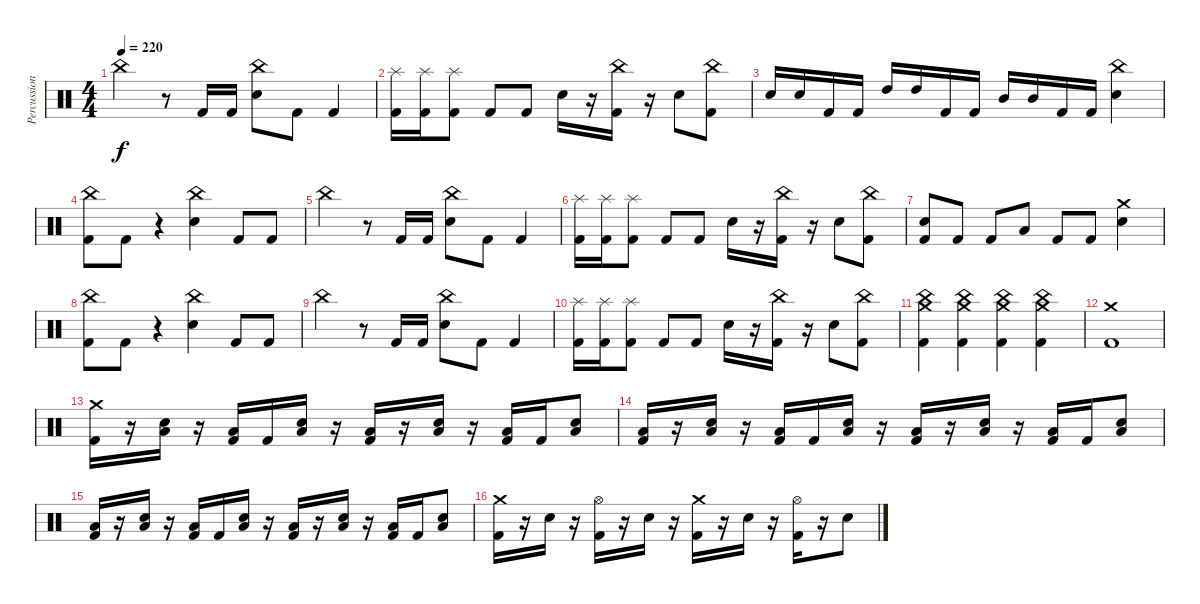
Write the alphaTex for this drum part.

\track ("Percussion" "Percussion") {solo instrument percussion}
\staff {score}
\articulation defaults
\ts (4 4)
\tempo 220
\clef neutral
\ks c "China (hit)".4{dy f}
r.8 "Kick (hit) 2".16 "Kick (hit) 2".16 ("China (hit)" "Electric Snare (hit)").8 "Kick (hit) 2".8 "Kick (hit) 2".4 |
("Splash (hit)" "Kick (hit) 2").16 ("Splash (hit)" "Kick (hit) 2").16 ("Splash (hit)" "Kick (hit) 2").8 "Kick (hit) 2".8 "Kick (hit) 2".8 "Electric Snare (hit)".16 r.16 ("China (hit)" "Kick (hit) 2").16 r.16 "Electric Snare (hit)".8 ("China (hit)" "Kick (hit) 2").8 |
"Electric Snare (hit)".16 "Electric Snare (hit)".16 "Kick (hit) 2".16 "Kick (hit) 2".16 "High Tom (hit)".16 "High Tom (hit)".16 "Kick (hit) 2".16 "Kick (hit) 2".16 "Mid Tom (hit)".16 "Mid Tom (hit)".16 "Kick (hit) 2".16 "Kick (hit) 2".16 ("China (hit)" "Electric Snare (hit)").4 |
("China (hit)" "Kick (hit) 2").8 "Kick (hit) 2".8 r.4 ("China (hit)" "Electric Snare (hit)").4 "Kick (hit) 2".8 "Kick (hit) 2".8 |
"China (hit)".4 r.8 "Kick (hit) 2".16 "Kick (hit) 2".16 ("China (hit)" "Electric Snare (hit)").8 "Kick (hit) 2".8 "Kick (hit) 2".4 |
("Splash (hit)" "Kick (hit) 2").16 ("Splash (hit)" "Kick (hit) 2").16 ("Splash (hit)" "Kick (hit) 2").8 "Kick (hit) 2".8 "Kick (hit) 2".8 "Electric Snare (hit)".16 r.16 ("China (hit)" "Kick (hit) 2").16 r.16 "Electric Snare (hit)".8 ("China (hit)" "Kick (hit) 2").8 |
("Electric Snare (hit)" "Kick (hit) 2").8 "Kick (hit) 2".8 "Kick (hit) 2".8 "Low Floor Tom (hit)".8 "Kick (hit) 2".8 "Kick (hit) 2".8 ("Crash medium (hit)" "Electric Snare (hit)").4 |
("China (hit)" "Kick (hit) 2").8 "Kick (hit) 2".8 r.4 ("China (hit)" "Electric Snare (hit)").4 "Kick (hit) 2".8 "Kick (hit) 2".8 |
"China (hit)".4 r.8 "Kick (hit) 2".16 "Kick (hit) 2".16 ("China (hit)" "Electric Snare (hit)").8 "Kick (hit) 2".8 "Kick (hit) 2".4 |
("Splash (hit)" "Kick (hit) 2").16 ("Splash (hit)" "Kick (hit) 2").16 ("Splash (hit)" "Kick (hit) 2").8 "Kick (hit) 2".8 "Kick (hit) 2".8 "Electric Snare (hit)".16 r.16 ("China (hit)" "Kick (hit) 2").16 r.16 "Electric Snare (hit)".8 ("China (hit)" "Kick (hit) 2").8 |
("China (hit)" "Crash medium (hit)" "Kick (hit) 2").4 ("China (hit)" "Crash medium (hit)" "Kick (hit) 2").4 ("China (hit)" "Crash medium (hit)" "Kick (hit) 2").4 ("China (hit)" "Crash medium (hit)" "Kick (hit) 2").4 |
("Crash medium (hit)" "Kick (hit) 2").1 |
("Crash medium (hit)" "Kick (hit) 2").16 r.16 ("Electric Snare (hit)" "Low Floor Tom (hit)").16 r.16 ("Low Floor Tom (hit)" "Kick (hit) 2").16 "Kick (hit) 2".16 ("Electric Snare (hit)" "Low Floor Tom (hit)").16 r.16 ("Low Floor Tom (hit)" "Kick (hit) 2").16 r.16 ("Electric Snare (hit)" "Low Floor Tom (hit)").16 r.16 ("Low Floor Tom (hit)" "Kick (hit) 2").16 "Kick (hit) 2".16 ("Electric Snare (hit)" "Low Floor Tom (hit)").8 |
("Low Floor Tom (hit)" "Kick (hit) 2").16 r.16 ("Electric Snare (hit)" "Low Floor Tom (hit)").16 r.16 ("Low Floor Tom (hit)" "Kick (hit) 2").16 "Kick (hit) 2".16 ("Electric Snare (hit)" "Low Floor Tom (hit)").16 r.16 ("Low Floor Tom (hit)" "Kick (hit) 2").16 r.16 ("Electric Snare (hit)" "Low Floor Tom (hit)").16 r.16 ("Low Floor Tom (hit)" "Kick (hit) 2").16 "Kick (hit) 2".16 ("Electric Snare (hit)" "Low Floor Tom (hit)").8 |
("Low Floor Tom (hit)" "Kick (hit) 2").16 r.16 ("Electric Snare (hit)" "Low Floor Tom (hit)").16 r.16 ("Low Floor Tom (hit)" "Kick (hit) 2").16 "Kick (hit) 2".16 ("Electric Snare (hit)" "Low Floor Tom (hit)").16 r.16 ("Low Floor Tom (hit)" "Kick (hit) 2").16 r.16 ("Electric Snare (hit)" "Low Floor Tom (hit)").16 r.16 ("Low Floor Tom (hit)" "Kick (hit) 2").16 "Kick (hit) 2".16 ("Electric Snare (hit)" "Low Floor Tom (hit)").8 |
("Crash medium (hit)" "Kick (hit) 2").16 r.16 "Electric Snare (hit)".16 r.16 ("Hi-Hat (open)" "Kick (hit) 2").16 r.16 "Electric Snare (hit)".16 r.16 ("Crash medium (hit)" "Kick (hit) 2").16 r.16 "Electric Snare (hit)".16 r.16 ("Hi-Hat (open)" "Kick (hit) 2").16 r.16 "Electric Snare (hit)".8
